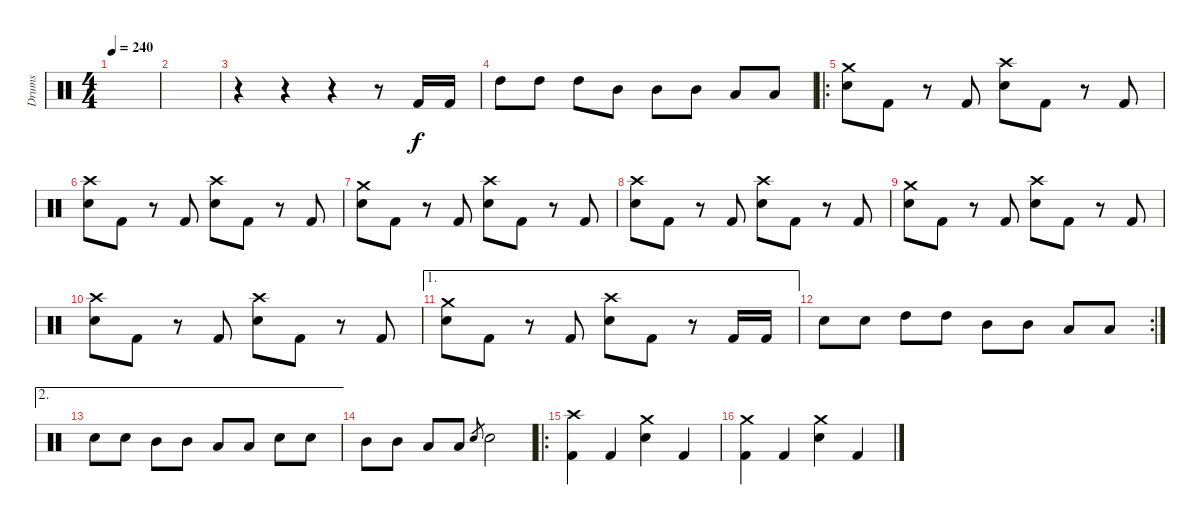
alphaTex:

\track ("Drums" "Drums") {instrument percussion}
\staff {score}
\articulation defaults
\ts (4 4)
\tempo 240
\clef neutral
\ks c
|
|
r.4 r.4 r.4 r.8 "Kick (hit) 2".16 "Kick (hit) 2".16 |
"High Tom (hit)".8 "High Tom (hit)".8 "High Tom (hit)".8 "Mid Tom (hit)".8 "Mid Tom (hit)".8 "Mid Tom (hit)".8 "Low Tom (hit)".8 "Low Tom (hit)".8 |
\ro
("Electric Snare (hit)" "Crash medium (hit)").8 "Kick (hit) 2".8 r.8 "Kick (hit) 2".8 ("Electric Snare (hit)" "Crash high (hit)").8 "Kick (hit) 2".8 r.8 "Kick (hit) 2".8 |
("Electric Snare (hit)" "Crash high (hit)").8 "Kick (hit) 2".8 r.8 "Kick (hit) 2".8 ("Electric Snare (hit)" "Crash high (hit)").8 "Kick (hit) 2".8 r.8 "Kick (hit) 2".8 |
("Electric Snare (hit)" "Crash medium (hit)").8 "Kick (hit) 2".8 r.8 "Kick (hit) 2".8 ("Electric Snare (hit)" "Crash high (hit)").8 "Kick (hit) 2".8 r.8 "Kick (hit) 2".8 |
("Electric Snare (hit)" "Crash high (hit)").8 "Kick (hit) 2".8 r.8 "Kick (hit) 2".8 ("Electric Snare (hit)" "Crash high (hit)").8 "Kick (hit) 2".8 r.8 "Kick (hit) 2".8 |
("Electric Snare (hit)" "Crash medium (hit)").8 "Kick (hit) 2".8 r.8 "Kick (hit) 2".8 ("Electric Snare (hit)" "Crash high (hit)").8 "Kick (hit) 2".8 r.8 "Kick (hit) 2".8 |
("Electric Snare (hit)" "Crash high (hit)").8 "Kick (hit) 2".8 r.8 "Kick (hit) 2".8 ("Electric Snare (hit)" "Crash high (hit)").8 "Kick (hit) 2".8 r.8 "Kick (hit) 2".8 |
\ae 1
("Electric Snare (hit)" "Crash medium (hit)").8 "Kick (hit) 2".8 r.8 "Kick (hit) 2".8 ("Electric Snare (hit)" "Crash high (hit)").8 "Kick (hit) 2".8 r.8 "Kick (hit) 2".16 "Kick (hit) 2".16 |
\rc 2 "Electric Snare (hit)".8 "Electric Snare (hit)".8 "High Tom (hit)".8 "High Tom (hit)".8 "Mid Tom (hit)".8 "Mid Tom (hit)".8 "Low Tom (hit)".8 "Low Tom (hit)".8
|
\ae 2 "Electric Snare (hit)".8 "Electric Snare (hit)".8 "Mid Tom (hit)".8 "Mid Tom (hit)".8 "Low Tom (hit)".8 "Low Tom (hit)".8 "Electric Snare (hit)".8 "Electric Snare (hit)".8
|
"Mid Tom (hit)".8 "Mid Tom (hit)".8 "Low Tom (hit)".8 "Low Tom (hit)".8 "Electric Snare (hit)".8{gr} "Electric Snare (hit)".2 |
\ro
("Kick (hit) 2" "Crash high (hit)").4 "Kick (hit) 2".4 ("Electric Snare (hit)" "Crash medium (hit)").4 "Kick (hit) 2".4 |
("Kick (hit) 2" "Crash medium (hit)").4 "Kick (hit) 2".4 ("Electric Snare (hit)" "Crash medium (hit)").4 "Kick (hit) 2".4
